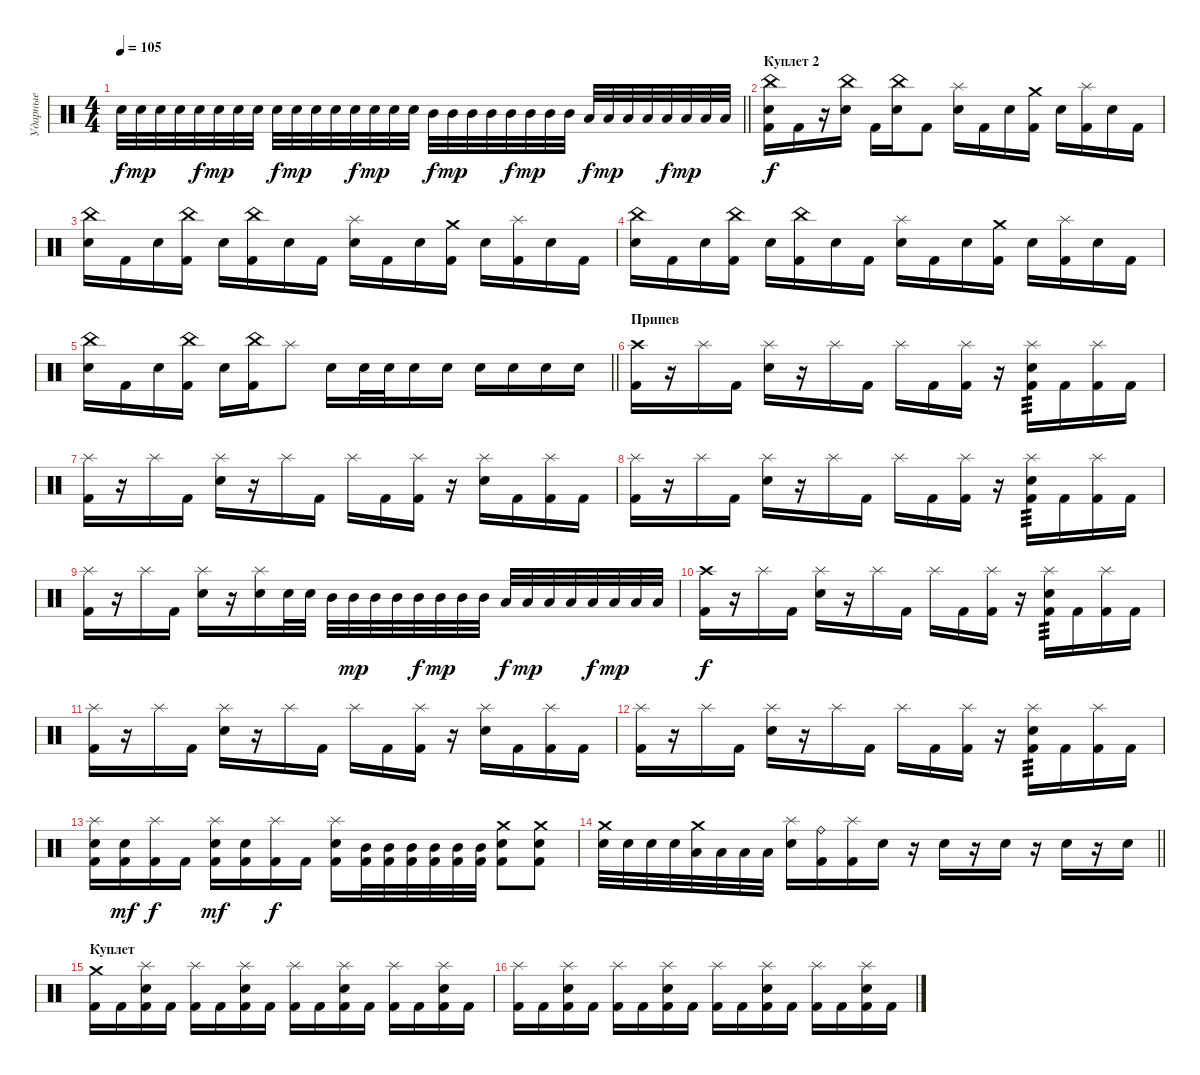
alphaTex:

\track ("Ударные" "Ударные") {instrument percussion}
\staff {score}
\articulation defaults
\ts (4 4)
\tempo 105
\clef neutral
\barLineRight lightlight
\ks c "Electric Snare (hit)".32{dy f} "Electric Snare (hit)".32{dy mp} "Electric Snare (hit)".32 "Electric Snare (hit)".32 "Electric Snare (hit)".32{dy f} "Electric Snare (hit)".32{dy mp} "Electric Snare (hit)".32 "Electric Snare (hit)".32 "Electric Snare (hit)".32{dy f} "Electric Snare (hit)".32{dy mp} "Electric Snare (hit)".32 "Electric Snare (hit)".32 "Electric Snare (hit)".32{dy f} "Electric Snare (hit)".32{dy mp} "Electric Snare (hit)".32 "Electric Snare (hit)".32 "Mid Tom (hit)".32{dy f} "Mid Tom (hit)".32{dy mp} "Mid Tom (hit)".32 "Mid Tom (hit)".32 "Mid Tom (hit)".32{dy f} "Mid Tom (hit)".32{dy mp} "Mid Tom (hit)".32 "Mid Tom (hit)".32 "Low Tom (hit)".32{dy f} "Low Tom (hit)".32{dy mp} "Low Tom (hit)".32 "Low Tom (hit)".32 "Low Tom (hit)".32{dy f} "Low Tom (hit)".32{dy mp} "Low Tom (hit)".32 "Low Tom (hit)".32
|
\section ("" "Куплет 2")
("China (hit)" "Electric Snare (hit)" "Kick (hit) 2").16{dy f} "Kick (hit) 2".16 r.16 ("China (hit)" "Electric Snare (hit)").16 "Kick (hit) 2".16 ("China (hit)" "Electric Snare (hit)").16 "Kick (hit) 2".8 ("Splash (hit)" "Electric Snare (hit)").16 "Kick (hit) 2".16 "Electric Snare (hit)".16 ("Crash medium (hit)" "Kick (hit) 2").16 "Electric Snare (hit)".16 ("Splash (hit)" "Kick (hit) 2").16 "Electric Snare (hit)".16 "Kick (hit) 2".16 |
("China (hit)" "Electric Snare (hit)").16 "Kick (hit) 2".16 "Electric Snare (hit)".16 ("China (hit)" "Kick (hit) 2").16 "Electric Snare (hit)".16 ("China (hit)" "Kick (hit) 2").16 "Electric Snare (hit)".16 "Kick (hit) 2".16 ("Splash (hit)" "Electric Snare (hit)").16 "Kick (hit) 2".16 "Electric Snare (hit)".16 ("Crash medium (hit)" "Kick (hit) 2").16 "Electric Snare (hit)".16 ("Splash (hit)" "Kick (hit) 2").16 "Electric Snare (hit)".16 "Kick (hit) 2".16 |
("China (hit)" "Electric Snare (hit)").16 "Kick (hit) 2".16 "Electric Snare (hit)".16 ("China (hit)" "Kick (hit) 2").16 "Electric Snare (hit)".16 ("China (hit)" "Kick (hit) 2").16 "Electric Snare (hit)".16 "Kick (hit) 2".16 ("Splash (hit)" "Electric Snare (hit)").16 "Kick (hit) 2".16 "Electric Snare (hit)".16 ("Crash medium (hit)" "Kick (hit) 2").16 "Electric Snare (hit)".16 ("Splash (hit)" "Kick (hit) 2").16 "Electric Snare (hit)".16 "Kick (hit) 2".16 |
\barLineRight lightlight
("China (hit)" "Electric Snare (hit)").16 "Kick (hit) 2".16 "Electric Snare (hit)".16 ("China (hit)" "Kick (hit) 2").16 "Electric Snare (hit)".16 ("China (hit)" "Kick (hit) 2").16 "Splash (hit)".8 "Electric Snare (hit)".16 "Electric Snare (hit)".32 "Electric Snare (hit)".32 "Electric Snare (hit)".16 "Electric Snare (hit)".16 "Electric Snare (hit)".16 "Electric Snare (hit)".16 "Electric Snare (hit)".16 "Electric Snare (hit)".16 |
\section ("" "Припев")
("Crash high (hit)" "Kick (hit) 2").16 r.16 "Splash (hit)".16 "Kick (hit) 2".16 ("Splash (hit)" "Electric Snare (hit)").16 r.16 "Splash (hit)".16 "Kick (hit) 2".16 "Splash (hit)".16 "Kick (hit) 2".16 ("Splash (hit)" "Kick (hit) 2").16 r.16 ("Splash (hit)" "Electric Snare (hit)" "Kick (hit) 2").16{tp 3} "Kick (hit) 2".16 ("Splash (hit)" "Kick (hit) 2").16 "Kick (hit) 2".16 |
("Splash (hit)" "Kick (hit) 2").16 r.16 "Splash (hit)".16 "Kick (hit) 2".16 ("Splash (hit)" "Electric Snare (hit)").16 r.16 "Splash (hit)".16 "Kick (hit) 2".16 "Splash (hit)".16 "Kick (hit) 2".16 ("Splash (hit)" "Kick (hit) 2").16 r.16 ("Splash (hit)" "Electric Snare (hit)").16 "Kick (hit) 2".16 ("Splash (hit)" "Kick (hit) 2").16 "Kick (hit) 2".16 |
("Splash (hit)" "Kick (hit) 2").16 r.16 "Splash (hit)".16 "Kick (hit) 2".16 ("Splash (hit)" "Electric Snare (hit)").16 r.16 "Splash (hit)".16 "Kick (hit) 2".16 "Splash (hit)".16 "Kick (hit) 2".16 ("Splash (hit)" "Kick (hit) 2").16 r.16 ("Splash (hit)" "Electric Snare (hit)" "Kick (hit) 2").16{tp 3} "Kick (hit) 2".16 ("Splash (hit)" "Kick (hit) 2").16 "Kick (hit) 2".16 |
("Splash (hit)" "Kick (hit) 2").16 r.16 "Splash (hit)".16 "Kick (hit) 2".16 ("Splash (hit)" "Electric Snare (hit)").16 r.16 ("Splash (hit)" "Electric Snare (hit)").16 "Electric Snare (hit)".32 "Electric Snare (hit)".32 "Mid Tom (hit)".32 "Mid Tom (hit)".32{dy mp} "Mid Tom (hit)".32 "Mid Tom (hit)".32 "Mid Tom (hit)".32{dy f} "Mid Tom (hit)".32{dy mp} "Mid Tom (hit)".32 "Mid Tom (hit)".32 "Low Tom (hit)".32{dy f} "Low Tom (hit)".32{dy mp} "Low Tom (hit)".32 "Low Tom (hit)".32 "Low Tom (hit)".32{dy f} "Low Tom (hit)".32{dy mp} "Low Tom (hit)".32 "Low Tom (hit)".32 |
("Crash high (hit)" "Kick (hit) 2").16{dy f} r.16 "Splash (hit)".16 "Kick (hit) 2".16 ("Splash (hit)" "Electric Snare (hit)").16 r.16 "Splash (hit)".16 "Kick (hit) 2".16 "Splash (hit)".16 "Kick (hit) 2".16 ("Splash (hit)" "Kick (hit) 2").16 r.16 ("Splash (hit)" "Electric Snare (hit)" "Kick (hit) 2").16{tp 3} "Kick (hit) 2".16 ("Splash (hit)" "Kick (hit) 2").16 "Kick (hit) 2".16 |
("Splash (hit)" "Kick (hit) 2").16 r.16 "Splash (hit)".16 "Kick (hit) 2".16 ("Splash (hit)" "Electric Snare (hit)").16 r.16 "Splash (hit)".16 "Kick (hit) 2".16 "Splash (hit)".16 "Kick (hit) 2".16 ("Splash (hit)" "Kick (hit) 2").16 r.16 ("Splash (hit)" "Electric Snare (hit)").16 "Kick (hit) 2".16 ("Splash (hit)" "Kick (hit) 2").16 "Kick (hit) 2".16 |
("Splash (hit)" "Kick (hit) 2").16 r.16 "Splash (hit)".16 "Kick (hit) 2".16 ("Splash (hit)" "Electric Snare (hit)").16 r.16 "Splash (hit)".16 "Kick (hit) 2".16 "Splash (hit)".16 "Kick (hit) 2".16 ("Splash (hit)" "Kick (hit) 2").16 r.16 ("Splash (hit)" "Electric Snare (hit)" "Kick (hit) 2").16{tp 3} "Kick (hit) 2".16 ("Splash (hit)" "Kick (hit) 2").16 "Kick (hit) 2".16 |
("Splash (hit)" "Electric Snare (hit)" "Kick (hit) 2").16 ("Electric Snare (hit)" "Kick (hit) 2").16{dy mf} ("Splash (hit)" "Kick (hit) 2").16{dy f} "Kick (hit) 2".16 ("Splash (hit)" "Electric Snare (hit)" "Kick (hit) 2").16{dy mf} ("Electric Snare (hit)" "Kick (hit) 2").16 ("Splash (hit)" "Kick (hit) 2").16{dy f} "Kick (hit) 2".16 ("Splash (hit)" "Electric Snare (hit)" "Kick (hit) 2").16 ("Mid Tom (hit)" "Kick (hit) 2").32 ("Mid Tom (hit)" "Kick (hit) 2").32 ("Mid Tom (hit)" "Kick (hit) 2").32 ("Mid Tom (hit)" "Kick (hit) 2").32 ("Mid Tom (hit)" "Kick (hit) 2").32 ("Mid Tom (hit)" "Kick (hit) 2").32 ("Crash medium (hit)" "Electric Snare (hit)" "Kick (hit) 2").8 ("Crash medium (hit)" "Electric Snare (hit)" "Kick (hit) 2").8 |
\barLineRight lightlight
("Crash medium (hit)" "Electric Snare (hit)").32 "Electric Snare (hit)".32 "Electric Snare (hit)".32 "Electric Snare (hit)".32 ("Crash medium (hit)" "Low Tom (hit)").32 "Low Tom (hit)".32 "Low Tom (hit)".32 "Low Tom (hit)".32 ("Splash (hit)" "Electric Snare (hit)").16 ("Ride (bell)" "Kick (hit) 2").16 ("Splash (hit)" "Kick (hit) 2").16 "Electric Snare (hit)".16 r.16 "Electric Snare (hit)".16 r.16 "Electric Snare (hit)".16 r.16 "Electric Snare (hit)".16 r.16 "Electric Snare (hit)".16 |
\section ("" "Куплет")
("Crash medium (hit)" "Kick (hit) 2").16 "Kick (hit) 2".16 ("Splash (hit)" "Electric Snare (hit)" "Kick (hit) 2").16 "Kick (hit) 2".16 ("Splash (hit)" "Kick (hit) 2").16 "Kick (hit) 2".16 ("Splash (hit)" "Electric Snare (hit)" "Kick (hit) 2").16 "Kick (hit) 2".16 ("Splash (hit)" "Kick (hit) 2").16 "Kick (hit) 2".16 ("Splash (hit)" "Electric Snare (hit)" "Kick (hit) 2").16 "Kick (hit) 2".16 ("Splash (hit)" "Kick (hit) 2").16 "Kick (hit) 2".16 ("Splash (hit)" "Electric Snare (hit)" "Kick (hit) 2").16 "Kick (hit) 2".16 |
("Splash (hit)" "Kick (hit) 2").16 "Kick (hit) 2".16 ("Splash (hit)" "Electric Snare (hit)" "Kick (hit) 2").16 "Kick (hit) 2".16 ("Splash (hit)" "Kick (hit) 2").16 "Kick (hit) 2".16 ("Splash (hit)" "Electric Snare (hit)" "Kick (hit) 2").16 "Kick (hit) 2".16 ("Splash (hit)" "Kick (hit) 2").16 "Kick (hit) 2".16 ("Splash (hit)" "Electric Snare (hit)" "Kick (hit) 2").16 "Kick (hit) 2".16 ("Splash (hit)" "Kick (hit) 2").16 "Kick (hit) 2".16 ("Splash (hit)" "Electric Snare (hit)" "Kick (hit) 2").16 "Kick (hit) 2".16
